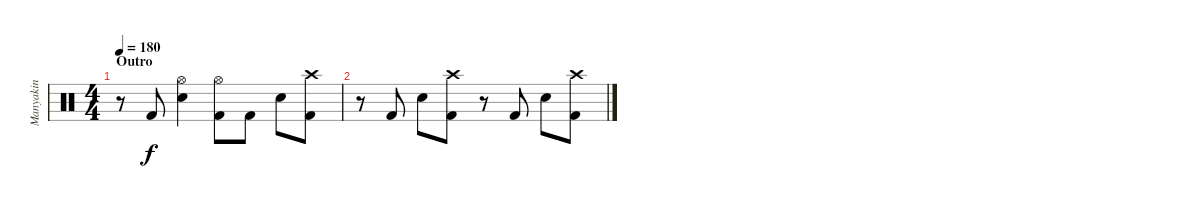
\track ("Manyakin" "Manyakin") {instrument percussion}
\staff {score}
\articulation defaults
\ts (4 4)
\section ("" "Outro")
\tempo 180
\clef neutral
\ks c
r.8{dy f} "Kick (hit) 2".8 ("Snare (hit) 2" "Hi-Hat (open)").4 ("Kick (hit) 2" "Hi-Hat (open)").8 "Kick (hit) 2".8 "Snare (hit) 2".8 ("Kick (hit) 2" "Crash high (hit)").8 |
r.8 "Kick (hit) 2".8 "Snare (hit) 2".8 ("Kick (hit) 2" "Crash high (hit)").8 r.8 "Kick (hit) 2".8 "Snare (hit) 2".8 ("Kick (hit) 2" "Crash high (hit)").8
